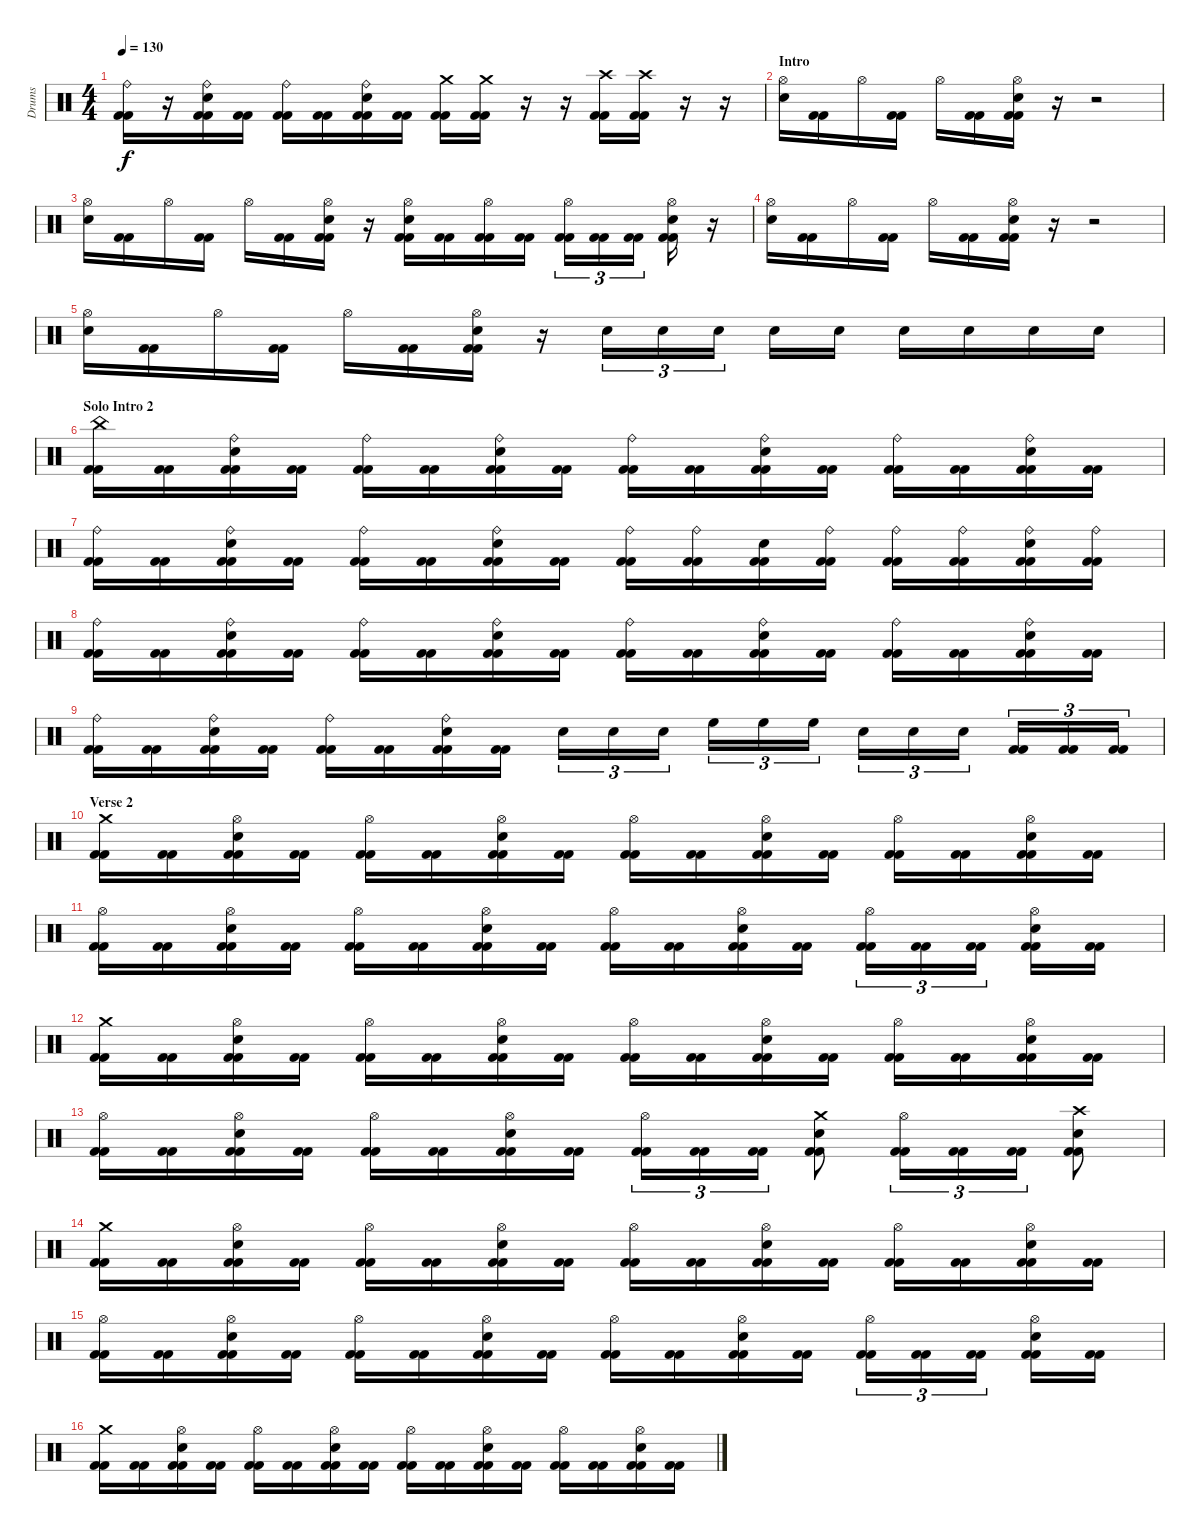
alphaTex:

\track ("Drums" "Drums") {instrument percussion}
\staff {score}
\articulation defaults
\ts (4 4)
\tempo 130
\clef neutral
\ks c
("Ride (bell)" "Kick (hit) 2" "Kick (hit) 2").16{dy f} r.16 ("Ride (bell)" "Electric Snare (hit)" "Kick (hit) 2" "Kick (hit) 2").16 ("Kick (hit) 2" "Kick (hit) 2").16 ("Ride (bell)" "Kick (hit) 2" "Kick (hit) 2").16 ("Kick (hit) 2" "Kick (hit) 2").16 ("Ride (bell)" "Electric Snare (hit)" "Kick (hit) 2" "Kick (hit) 2").16 ("Kick (hit) 2" "Kick (hit) 2").16 ("Crash medium (hit)" "Kick (hit) 2" "Kick (hit) 2").16 ("Crash medium (hit)" "Kick (hit) 2" "Kick (hit) 2").16 r.16 r.16 ("Crash high (hit)" "Kick (hit) 2" "Kick (hit) 2").16 ("Crash high (hit)" "Kick (hit) 2" "Kick (hit) 2").16 r.16 r.16 |
\section ("" "Intro")
("Hi-Hat (open)" "Electric Snare (hit)").16 ("Kick (hit) 2" "Kick (hit) 2").16 "Hi-Hat (open)".16 ("Kick (hit) 2" "Kick (hit) 2").16 "Hi-Hat (open)".16 ("Kick (hit) 2" "Kick (hit) 2").16 ("Hi-Hat (open)" "Electric Snare (hit)" "Kick (hit) 2" "Kick (hit) 2").16 r.16 r.2 |
("Hi-Hat (open)" "Electric Snare (hit)").16 ("Kick (hit) 2" "Kick (hit) 2").16 "Hi-Hat (open)".16 ("Kick (hit) 2" "Kick (hit) 2").16 "Hi-Hat (open)".16 ("Kick (hit) 2" "Kick (hit) 2").16 ("Hi-Hat (open)" "Electric Snare (hit)" "Kick (hit) 2" "Kick (hit) 2").16 r.16 ("Hi-Hat (open)" "Electric Snare (hit)" "Kick (hit) 2" "Kick (hit) 2").16 ("Kick (hit) 2" "Kick (hit) 2").16 ("Hi-Hat (open)" "Kick (hit) 2" "Kick (hit) 2").16 ("Kick (hit) 2" "Kick (hit) 2").16 ("Hi-Hat (open)" "Kick (hit) 2" "Kick (hit) 2").16{tu (3 2)} ("Kick (hit) 2" "Kick (hit) 2").16{tu (3 2)} ("Kick (hit) 2" "Kick (hit) 2").16{tu (3 2)} ("Hi-Hat (open)" "Electric Snare (hit)" "Kick (hit) 2" "Kick (hit) 2").16 r.16 |
("Hi-Hat (open)" "Electric Snare (hit)").16 ("Kick (hit) 2" "Kick (hit) 2").16 "Hi-Hat (open)".16 ("Kick (hit) 2" "Kick (hit) 2").16 "Hi-Hat (open)".16 ("Kick (hit) 2" "Kick (hit) 2").16 ("Hi-Hat (open)" "Electric Snare (hit)" "Kick (hit) 2" "Kick (hit) 2").16 r.16 r.2 |
("Hi-Hat (open)" "Electric Snare (hit)").16 ("Kick (hit) 2" "Kick (hit) 2").16 "Hi-Hat (open)".16 ("Kick (hit) 2" "Kick (hit) 2").16 "Hi-Hat (open)".16 ("Kick (hit) 2" "Kick (hit) 2").16 ("Hi-Hat (open)" "Electric Snare (hit)" "Kick (hit) 2" "Kick (hit) 2").16 r.16 "Electric Snare (hit)".16{tu (3 2)} "Electric Snare (hit)".16{tu (3 2)} "Electric Snare (hit)".16{tu (3 2)} "Electric Snare (hit)".16 "Electric Snare (hit)".16 "Electric Snare (hit)".16 "Electric Snare (hit)".16 "Electric Snare (hit)".16 "Electric Snare (hit)".16 |
\section ("" "Solo Intro 2")
("China (hit)" "Kick (hit) 2" "Kick (hit) 2").16 ("Kick (hit) 2" "Kick (hit) 2").16 ("Ride (bell)" "Electric Snare (hit)" "Kick (hit) 2" "Kick (hit) 2").16 ("Kick (hit) 2" "Kick (hit) 2").16 ("Ride (bell)" "Kick (hit) 2" "Kick (hit) 2").16 ("Kick (hit) 2" "Kick (hit) 2").16 ("Ride (bell)" "Electric Snare (hit)" "Kick (hit) 2" "Kick (hit) 2").16 ("Kick (hit) 2" "Kick (hit) 2").16 ("Ride (bell)" "Kick (hit) 2" "Kick (hit) 2").16 ("Kick (hit) 2" "Kick (hit) 2").16 ("Ride (bell)" "Electric Snare (hit)" "Kick (hit) 2" "Kick (hit) 2").16 ("Kick (hit) 2" "Kick (hit) 2").16 ("Ride (bell)" "Kick (hit) 2" "Kick (hit) 2").16 ("Kick (hit) 2" "Kick (hit) 2").16 ("Ride (bell)" "Electric Snare (hit)" "Kick (hit) 2" "Kick (hit) 2").16 ("Kick (hit) 2" "Kick (hit) 2").16 |
("Ride (bell)" "Kick (hit) 2" "Kick (hit) 2").16 ("Kick (hit) 2" "Kick (hit) 2").16 ("Ride (bell)" "Electric Snare (hit)" "Kick (hit) 2" "Kick (hit) 2").16 ("Kick (hit) 2" "Kick (hit) 2").16 ("Ride (bell)" "Kick (hit) 2" "Kick (hit) 2").16 ("Kick (hit) 2" "Kick (hit) 2").16 ("Ride (bell)" "Electric Snare (hit)" "Kick (hit) 2" "Kick (hit) 2").16 ("Kick (hit) 2" "Kick (hit) 2").16 ("Ride (bell)" "Kick (hit) 2" "Kick (hit) 2").16 ("Ride (bell)" "Kick (hit) 2" "Kick (hit) 2").16 ("Electric Snare (hit)" "Kick (hit) 2" "Kick (hit) 2").16 ("Ride (bell)" "Kick (hit) 2" "Kick (hit) 2").16 ("Ride (bell)" "Kick (hit) 2" "Kick (hit) 2").16 ("Ride (bell)" "Kick (hit) 2" "Kick (hit) 2").16 ("Ride (bell)" "Electric Snare (hit)" "Kick (hit) 2" "Kick (hit) 2").16 ("Ride (bell)" "Kick (hit) 2" "Kick (hit) 2").16 |
("Ride (bell)" "Kick (hit) 2" "Kick (hit) 2").16 ("Kick (hit) 2" "Kick (hit) 2").16 ("Ride (bell)" "Electric Snare (hit)" "Kick (hit) 2" "Kick (hit) 2").16 ("Kick (hit) 2" "Kick (hit) 2").16 ("Ride (bell)" "Kick (hit) 2" "Kick (hit) 2").16 ("Kick (hit) 2" "Kick (hit) 2").16 ("Ride (bell)" "Electric Snare (hit)" "Kick (hit) 2" "Kick (hit) 2").16 ("Kick (hit) 2" "Kick (hit) 2").16 ("Ride (bell)" "Kick (hit) 2" "Kick (hit) 2").16 ("Kick (hit) 2" "Kick (hit) 2").16 ("Ride (bell)" "Electric Snare (hit)" "Kick (hit) 2" "Kick (hit) 2").16 ("Kick (hit) 2" "Kick (hit) 2").16 ("Ride (bell)" "Kick (hit) 2" "Kick (hit) 2").16 ("Kick (hit) 2" "Kick (hit) 2").16 ("Ride (bell)" "Electric Snare (hit)" "Kick (hit) 2" "Kick (hit) 2").16 ("Kick (hit) 2" "Kick (hit) 2").16 |
("Ride (bell)" "Kick (hit) 2" "Kick (hit) 2").16 ("Kick (hit) 2" "Kick (hit) 2").16 ("Ride (bell)" "Electric Snare (hit)" "Kick (hit) 2" "Kick (hit) 2").16 ("Kick (hit) 2" "Kick (hit) 2").16 ("Ride (bell)" "Kick (hit) 2" "Kick (hit) 2").16 ("Kick (hit) 2" "Kick (hit) 2").16 ("Ride (bell)" "Electric Snare (hit)" "Kick (hit) 2" "Kick (hit) 2").16 ("Kick (hit) 2" "Kick (hit) 2").16 "Electric Snare (hit)".16{tu (3 2)} "Electric Snare (hit)".16{tu (3 2)} "Electric Snare (hit)".16{tu (3 2)} "High Floor Tom (hit)".16{tu (3 2)} "High Floor Tom (hit)".16{tu (3 2)} "High Floor Tom (hit)".16{tu (3 2)} "Electric Snare (hit)".16{tu (3 2)} "Electric Snare (hit)".16{tu (3 2)} "Electric Snare (hit)".16{tu (3 2)} ("Kick (hit) 2" "Kick (hit) 2").16{tu (3 2)} ("Kick (hit) 2" "Kick (hit) 2").16{tu (3 2)} ("Kick (hit) 2" "Kick (hit) 2").16{tu (3 2)} |
\section ("" "Verse 2")
("Crash medium (hit)" "Kick (hit) 2" "Kick (hit) 2").16 ("Kick (hit) 2" "Kick (hit) 2").16 ("Hi-Hat (open)" "Electric Snare (hit)" "Kick (hit) 2" "Kick (hit) 2").16 ("Kick (hit) 2" "Kick (hit) 2").16 ("Hi-Hat (open)" "Kick (hit) 2" "Kick (hit) 2").16 ("Kick (hit) 2" "Kick (hit) 2").16 ("Hi-Hat (open)" "Electric Snare (hit)" "Kick (hit) 2" "Kick (hit) 2").16 ("Kick (hit) 2" "Kick (hit) 2").16 ("Hi-Hat (open)" "Kick (hit) 2" "Kick (hit) 2").16 ("Kick (hit) 2" "Kick (hit) 2").16 ("Hi-Hat (open)" "Electric Snare (hit)" "Kick (hit) 2" "Kick (hit) 2").16 ("Kick (hit) 2" "Kick (hit) 2").16 ("Hi-Hat (open)" "Kick (hit) 2" "Kick (hit) 2").16 ("Kick (hit) 2" "Kick (hit) 2").16 ("Hi-Hat (open)" "Electric Snare (hit)" "Kick (hit) 2" "Kick (hit) 2").16 ("Kick (hit) 2" "Kick (hit) 2").16 |
("Hi-Hat (open)" "Kick (hit) 2" "Kick (hit) 2").16 ("Kick (hit) 2" "Kick (hit) 2").16 ("Hi-Hat (open)" "Electric Snare (hit)" "Kick (hit) 2" "Kick (hit) 2").16 ("Kick (hit) 2" "Kick (hit) 2").16 ("Hi-Hat (open)" "Kick (hit) 2" "Kick (hit) 2").16 ("Kick (hit) 2" "Kick (hit) 2").16 ("Hi-Hat (open)" "Electric Snare (hit)" "Kick (hit) 2" "Kick (hit) 2").16 ("Kick (hit) 2" "Kick (hit) 2").16 ("Hi-Hat (open)" "Kick (hit) 2" "Kick (hit) 2").16 ("Kick (hit) 2" "Kick (hit) 2").16 ("Hi-Hat (open)" "Electric Snare (hit)" "Kick (hit) 2" "Kick (hit) 2").16 ("Kick (hit) 2" "Kick (hit) 2").16 ("Hi-Hat (open)" "Kick (hit) 2" "Kick (hit) 2").16{tu (3 2)} ("Kick (hit) 2" "Kick (hit) 2").16{tu (3 2)} ("Kick (hit) 2" "Kick (hit) 2").16{tu (3 2)} ("Hi-Hat (open)" "Electric Snare (hit)" "Kick (hit) 2" "Kick (hit) 2").16 ("Kick (hit) 2" "Kick (hit) 2").16 |
("Crash medium (hit)" "Kick (hit) 2" "Kick (hit) 2").16 ("Kick (hit) 2" "Kick (hit) 2").16 ("Hi-Hat (open)" "Electric Snare (hit)" "Kick (hit) 2" "Kick (hit) 2").16 ("Kick (hit) 2" "Kick (hit) 2").16 ("Hi-Hat (open)" "Kick (hit) 2" "Kick (hit) 2").16 ("Kick (hit) 2" "Kick (hit) 2").16 ("Hi-Hat (open)" "Electric Snare (hit)" "Kick (hit) 2" "Kick (hit) 2").16 ("Kick (hit) 2" "Kick (hit) 2").16 ("Hi-Hat (open)" "Kick (hit) 2" "Kick (hit) 2").16 ("Kick (hit) 2" "Kick (hit) 2").16 ("Hi-Hat (open)" "Electric Snare (hit)" "Kick (hit) 2" "Kick (hit) 2").16 ("Kick (hit) 2" "Kick (hit) 2").16 ("Hi-Hat (open)" "Kick (hit) 2" "Kick (hit) 2").16 ("Kick (hit) 2" "Kick (hit) 2").16 ("Hi-Hat (open)" "Electric Snare (hit)" "Kick (hit) 2" "Kick (hit) 2").16 ("Kick (hit) 2" "Kick (hit) 2").16 |
("Hi-Hat (open)" "Kick (hit) 2" "Kick (hit) 2").16 ("Kick (hit) 2" "Kick (hit) 2").16 ("Hi-Hat (open)" "Electric Snare (hit)" "Kick (hit) 2" "Kick (hit) 2").16 ("Kick (hit) 2" "Kick (hit) 2").16 ("Hi-Hat (open)" "Kick (hit) 2" "Kick (hit) 2").16 ("Kick (hit) 2" "Kick (hit) 2").16 ("Hi-Hat (open)" "Electric Snare (hit)" "Kick (hit) 2" "Kick (hit) 2").16 ("Kick (hit) 2" "Kick (hit) 2").16 ("Hi-Hat (open)" "Kick (hit) 2" "Kick (hit) 2").16{tu (3 2)} ("Kick (hit) 2" "Kick (hit) 2").16{tu (3 2)} ("Kick (hit) 2" "Kick (hit) 2").16{tu (3 2)} ("Crash medium (hit)" "Electric Snare (hit)" "Kick (hit) 2" "Kick (hit) 2").8 ("Hi-Hat (open)" "Kick (hit) 2" "Kick (hit) 2").16{tu (3 2)} ("Kick (hit) 2" "Kick (hit) 2").16{tu (3 2)} ("Kick (hit) 2" "Kick (hit) 2").16{tu (3 2)} ("Crash high (hit)" "Electric Snare (hit)" "Kick (hit) 2" "Kick (hit) 2").8 |
("Crash medium (hit)" "Kick (hit) 2" "Kick (hit) 2").16 ("Kick (hit) 2" "Kick (hit) 2").16 ("Hi-Hat (open)" "Electric Snare (hit)" "Kick (hit) 2" "Kick (hit) 2").16 ("Kick (hit) 2" "Kick (hit) 2").16 ("Hi-Hat (open)" "Kick (hit) 2" "Kick (hit) 2").16 ("Kick (hit) 2" "Kick (hit) 2").16 ("Hi-Hat (open)" "Electric Snare (hit)" "Kick (hit) 2" "Kick (hit) 2").16 ("Kick (hit) 2" "Kick (hit) 2").16 ("Hi-Hat (open)" "Kick (hit) 2" "Kick (hit) 2").16 ("Kick (hit) 2" "Kick (hit) 2").16 ("Hi-Hat (open)" "Electric Snare (hit)" "Kick (hit) 2" "Kick (hit) 2").16 ("Kick (hit) 2" "Kick (hit) 2").16 ("Hi-Hat (open)" "Kick (hit) 2" "Kick (hit) 2").16 ("Kick (hit) 2" "Kick (hit) 2").16 ("Hi-Hat (open)" "Electric Snare (hit)" "Kick (hit) 2" "Kick (hit) 2").16 ("Kick (hit) 2" "Kick (hit) 2").16 |
("Hi-Hat (open)" "Kick (hit) 2" "Kick (hit) 2").16 ("Kick (hit) 2" "Kick (hit) 2").16 ("Hi-Hat (open)" "Electric Snare (hit)" "Kick (hit) 2" "Kick (hit) 2").16 ("Kick (hit) 2" "Kick (hit) 2").16 ("Hi-Hat (open)" "Kick (hit) 2" "Kick (hit) 2").16 ("Kick (hit) 2" "Kick (hit) 2").16 ("Hi-Hat (open)" "Electric Snare (hit)" "Kick (hit) 2" "Kick (hit) 2").16 ("Kick (hit) 2" "Kick (hit) 2").16 ("Hi-Hat (open)" "Kick (hit) 2" "Kick (hit) 2").16 ("Kick (hit) 2" "Kick (hit) 2").16 ("Hi-Hat (open)" "Electric Snare (hit)" "Kick (hit) 2" "Kick (hit) 2").16 ("Kick (hit) 2" "Kick (hit) 2").16 ("Hi-Hat (open)" "Kick (hit) 2" "Kick (hit) 2").16{tu (3 2)} ("Kick (hit) 2" "Kick (hit) 2").16{tu (3 2)} ("Kick (hit) 2" "Kick (hit) 2").16{tu (3 2)} ("Hi-Hat (open)" "Electric Snare (hit)" "Kick (hit) 2" "Kick (hit) 2").16 ("Kick (hit) 2" "Kick (hit) 2").16 |
("Crash medium (hit)" "Kick (hit) 2" "Kick (hit) 2").16 ("Kick (hit) 2" "Kick (hit) 2").16 ("Hi-Hat (open)" "Electric Snare (hit)" "Kick (hit) 2" "Kick (hit) 2").16 ("Kick (hit) 2" "Kick (hit) 2").16 ("Hi-Hat (open)" "Kick (hit) 2" "Kick (hit) 2").16 ("Kick (hit) 2" "Kick (hit) 2").16 ("Hi-Hat (open)" "Electric Snare (hit)" "Kick (hit) 2" "Kick (hit) 2").16 ("Kick (hit) 2" "Kick (hit) 2").16 ("Hi-Hat (open)" "Kick (hit) 2" "Kick (hit) 2").16 ("Kick (hit) 2" "Kick (hit) 2").16 ("Hi-Hat (open)" "Electric Snare (hit)" "Kick (hit) 2" "Kick (hit) 2").16 ("Kick (hit) 2" "Kick (hit) 2").16 ("Hi-Hat (open)" "Kick (hit) 2" "Kick (hit) 2").16 ("Kick (hit) 2" "Kick (hit) 2").16 ("Hi-Hat (open)" "Electric Snare (hit)" "Kick (hit) 2" "Kick (hit) 2").16 ("Kick (hit) 2" "Kick (hit) 2").16
